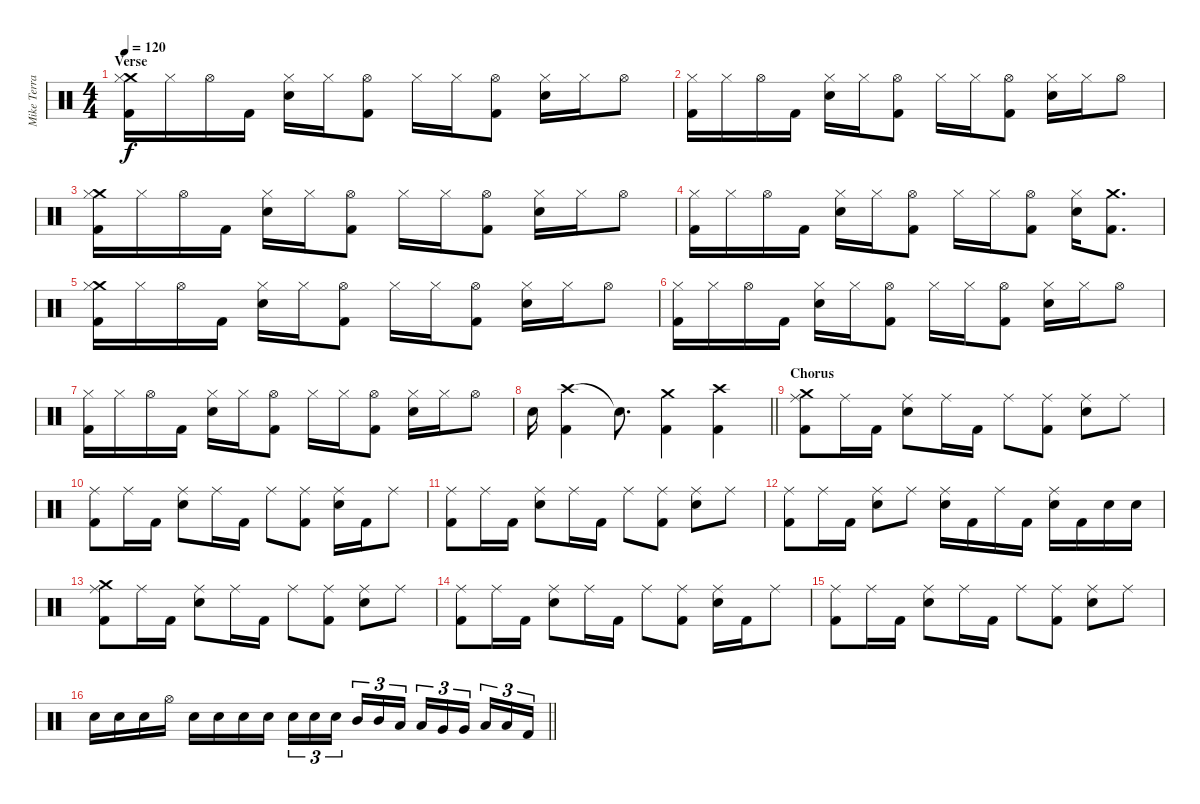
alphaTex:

\track ("Mike Terrana" "Mike Terra") {instrument percussion}
\staff {score}
\articulation defaults
\ts (4 4)
\section ("" "Verse")
\tempo 120
\clef neutral
\ks c
("Crash medium (hit)" "Hi-Hat (closed)" "Kick (hit) 2").16{dy f} "Hi-Hat (closed)".16 "Hi-Hat (open)".16 "Kick (hit) 2".16 ("Hi-Hat (closed)" "Snare (hit) 2").16 "Hi-Hat (closed)".16 ("Hi-Hat (open)" "Kick (hit) 2").8 "Hi-Hat (closed)".16 "Hi-Hat (closed)".16 ("Hi-Hat (open)" "Kick (hit) 2").8 ("Hi-Hat (closed)" "Snare (hit) 2").16 "Hi-Hat (closed)".16 "Hi-Hat (open)".8 |
("Hi-Hat (closed)" "Kick (hit) 2").16 "Hi-Hat (closed)".16 "Hi-Hat (open)".16 "Kick (hit) 2".16 ("Hi-Hat (closed)" "Snare (hit) 2").16 "Hi-Hat (closed)".16 ("Hi-Hat (open)" "Kick (hit) 2").8 "Hi-Hat (closed)".16 "Hi-Hat (closed)".16 ("Hi-Hat (open)" "Kick (hit) 2").8 ("Hi-Hat (closed)" "Snare (hit) 2").16 "Hi-Hat (closed)".16 "Hi-Hat (open)".8 |
("Crash medium (hit)" "Hi-Hat (closed)" "Kick (hit) 2").16 "Hi-Hat (closed)".16 "Hi-Hat (open)".16 "Kick (hit) 2".16 ("Hi-Hat (closed)" "Snare (hit) 2").16 "Hi-Hat (closed)".16 ("Hi-Hat (open)" "Kick (hit) 2").8 "Hi-Hat (closed)".16 "Hi-Hat (closed)".16 ("Hi-Hat (open)" "Kick (hit) 2").8 ("Hi-Hat (closed)" "Snare (hit) 2").16 "Hi-Hat (closed)".16 "Hi-Hat (open)".8 |
("Hi-Hat (closed)" "Kick (hit) 2").16 "Hi-Hat (closed)".16 "Hi-Hat (open)".16 "Kick (hit) 2".16 ("Hi-Hat (closed)" "Snare (hit) 2").16 "Hi-Hat (closed)".16 ("Hi-Hat (open)" "Kick (hit) 2").8 "Hi-Hat (closed)".16 "Hi-Hat (closed)".16 ("Hi-Hat (open)" "Kick (hit) 2").8 ("Hi-Hat (closed)" "Snare (hit) 2").16 ("Crash medium (hit)" "Kick (hit) 2").8{d} |
("Crash medium (hit)" "Hi-Hat (closed)" "Kick (hit) 2").16 "Hi-Hat (closed)".16 "Hi-Hat (open)".16 "Kick (hit) 2".16 ("Hi-Hat (closed)" "Snare (hit) 2").16 "Hi-Hat (closed)".16 ("Hi-Hat (open)" "Kick (hit) 2").8 "Hi-Hat (closed)".16 "Hi-Hat (closed)".16 ("Hi-Hat (open)" "Kick (hit) 2").8 ("Hi-Hat (closed)" "Snare (hit) 2").16 "Hi-Hat (closed)".16 "Hi-Hat (open)".8 |
("Hi-Hat (closed)" "Kick (hit) 2").16 "Hi-Hat (closed)".16 "Hi-Hat (open)".16 "Kick (hit) 2".16 ("Hi-Hat (closed)" "Snare (hit) 2").16 "Hi-Hat (closed)".16 ("Hi-Hat (open)" "Kick (hit) 2").8 "Hi-Hat (closed)".16 "Hi-Hat (closed)".16 ("Hi-Hat (open)" "Kick (hit) 2").8 ("Hi-Hat (closed)" "Snare (hit) 2").16 "Hi-Hat (closed)".16 "Hi-Hat (open)".8 |
("Hi-Hat (closed)" "Kick (hit) 2").16 "Hi-Hat (closed)".16 "Hi-Hat (open)".16 "Kick (hit) 2".16 ("Hi-Hat (closed)" "Snare (hit) 2").16 "Hi-Hat (closed)".16 ("Hi-Hat (open)" "Kick (hit) 2").8 "Hi-Hat (closed)".16 "Hi-Hat (closed)".16 ("Hi-Hat (open)" "Kick (hit) 2").8 ("Hi-Hat (closed)" "Snare (hit) 2").16 "Hi-Hat (closed)".16 "Hi-Hat (open)".8 |
\barLineRight lightlight "Snare (hit) 2".16
("Crash high (hit)" "Kick (hit) 2").4 "Snare (hit)"{t}.8{d} ("Crash medium (hit)" "Kick (hit) 2").4 ("Crash high (hit)" "Kick (hit) 2").4 |
\section ("" "Chorus")
("Crash medium (hit)" "Ride (middle)" "Kick (hit) 2").8 "Ride (middle)".16 "Kick (hit) 2".16 ("Ride (middle)" "Snare (hit) 2").8 "Ride (middle)".16 "Kick (hit) 2".16 "Ride (middle)".8 ("Ride (middle)" "Kick (hit) 2").8 ("Ride (middle)" "Snare (hit) 2").8 "Ride (middle)".8 |
("Ride (middle)" "Kick (hit) 2").8 "Ride (middle)".16 "Kick (hit) 2".16 ("Ride (middle)" "Snare (hit) 2").8 "Ride (middle)".16 "Kick (hit) 2".16 "Ride (middle)".8 ("Ride (middle)" "Kick (hit) 2").8 ("Ride (middle)" "Snare (hit) 2").16 "Kick (hit) 2".16 "Ride (middle)".8 |
("Ride (middle)" "Kick (hit) 2").8 "Ride (middle)".16 "Kick (hit) 2".16 ("Ride (middle)" "Snare (hit) 2").8 "Ride (middle)".16 "Kick (hit) 2".16 "Ride (middle)".8 ("Ride (middle)" "Kick (hit) 2").8 ("Ride (middle)" "Snare (hit) 2").8 "Ride (middle)".8 |
("Ride (middle)" "Kick (hit) 2").8 "Ride (middle)".16 "Kick (hit) 2".16 ("Ride (middle)" "Snare (hit) 2").8 "Ride (middle)".8 ("Ride (middle)" "Snare (hit) 2").16 "Kick (hit) 2".16 "Ride (middle)".16 "Kick (hit) 2".16 ("Ride (middle)" "Snare (hit) 2").16 "Kick (hit) 2".16 "Snare (hit) 2".16 "Snare (hit) 2".16 |
("Crash medium (hit)" "Ride (middle)" "Kick (hit) 2").8 "Ride (middle)".16 "Kick (hit) 2".16 ("Ride (middle)" "Snare (hit) 2").8 "Ride (middle)".16 "Kick (hit) 2".16 "Ride (middle)".8 ("Ride (middle)" "Kick (hit) 2").8 ("Ride (middle)" "Snare (hit) 2").8 "Ride (middle)".8 |
("Ride (middle)" "Kick (hit) 2").8 "Ride (middle)".16 "Kick (hit) 2".16 ("Ride (middle)" "Snare (hit) 2").8 "Ride (middle)".16 "Kick (hit) 2".16 "Ride (middle)".8 ("Ride (middle)" "Kick (hit) 2").8 ("Ride (middle)" "Snare (hit) 2").16 "Kick (hit) 2".16 "Ride (middle)".8 |
("Ride (middle)" "Kick (hit) 2").8 "Ride (middle)".16 "Kick (hit) 2".16 ("Ride (middle)" "Snare (hit) 2").8 "Ride (middle)".16 "Kick (hit) 2".16 "Ride (middle)".8 ("Ride (middle)" "Kick (hit) 2").8 ("Ride (middle)" "Snare (hit) 2").8 "Ride (middle)".8 |
\barLineRight lightlight "Snare (hit) 2".16 "Snare (hit) 2".16 "Snare (hit) 2".16 "Hi-Hat (open)".16 "Snare (hit) 2".16 "Snare (hit) 2".16 "Snare (hit) 2".16 "Snare (hit) 2".16 "Snare (hit) 2".16{tu (3 2)} "Snare (hit) 2".16{tu (3 2)} "Snare (hit) 2".16{tu (3 2) beam splitsecondary} "Mid Tom (hit)".16{tu (3 2)} "Mid Tom (hit)".16{tu (3 2)} "Low Tom (hit)".16{tu (3 2)} "Low Tom (hit)".16{tu (3 2)} "Very Low Tom (hit)".16{tu (3 2)} "Very Low Tom (hit)".16{tu (3 2) beam splitsecondary} "Low Floor Tom (hit)".16{tu (3 2)} "Low Floor Tom (hit)".16{tu (3 2)} "Kick (hit) 2".16{tu (3 2)}
